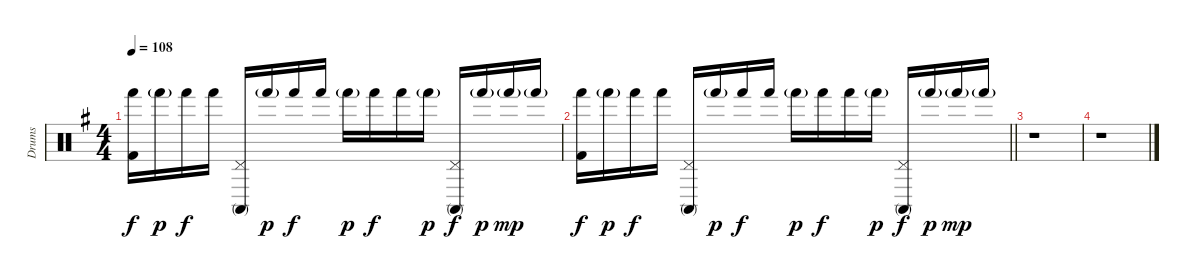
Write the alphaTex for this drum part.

\track ("Drums" "Drums") {instrument percussion}
\staff {score}
\articulation defaults
\ts (4 4)
\tempo 108
\clef neutral
\ks eminor
("Hand (hit)" "Kick (hit) 2").16{dy f} "Hand (hit)"{g}.16{dy p} "Hand (hit)".16{dy f} "Hand (hit)".16 ("Pedal Hi-Hat (hit)" "Conga high (mute)").16 "Hand (hit)"{g}.16{dy p} "Hand (hit)".16{dy f} "Hand (hit)".16 "Hand (hit)"{g}.16{dy p} "Hand (hit)".16{dy f} "Hand (hit)".16 "Hand (hit)"{g}.16{dy p} ("Pedal Hi-Hat (hit)" "Conga high (mute)").16{dy f} "Hand (hit)"{g}.16{dy p} "Hand (hit)"{g}.16{dy mp} "Hand (hit)"{g}.16 |
\barLineRight lightlight
("Hand (hit)" "Kick (hit) 2").16{dy f} "Hand (hit)"{g}.16{dy p} "Hand (hit)".16{dy f} "Hand (hit)".16 ("Pedal Hi-Hat (hit)" "Conga high (mute)").16 "Hand (hit)"{g}.16{dy p} "Hand (hit)".16{dy f} "Hand (hit)".16 "Hand (hit)"{g}.16{dy p} "Hand (hit)".16{dy f} "Hand (hit)".16 "Hand (hit)"{g}.16{dy p} ("Pedal Hi-Hat (hit)" "Conga high (mute)").16{dy f} "Hand (hit)"{g}.16{dy p} "Hand (hit)"{g}.16{dy mp} "Hand (hit)"{g}.16 |
r.1 |
r.1
